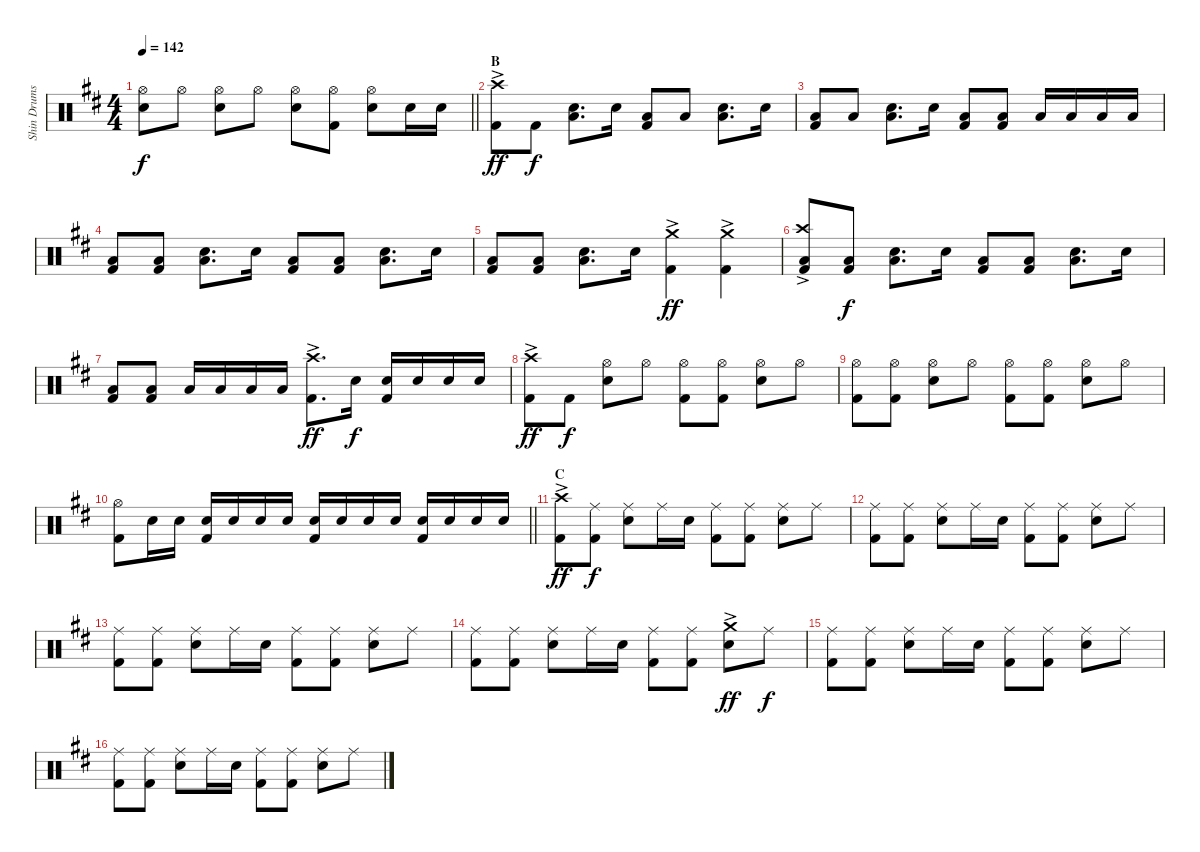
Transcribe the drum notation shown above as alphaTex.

\track ("Shin Drums" "Shin Drums") {instrument percussion}
\staff {score}
\articulation defaults
\ts (4 4)
\tempo 142
\clef neutral
\barLineRight lightlight
\ks d
("Hi-Hat (open)" "Snare (hit) 2").8{dy f} "Hi-Hat (open)".8 ("Hi-Hat (open)" "Snare (hit) 2").8 "Hi-Hat (open)".8 ("Hi-Hat (open)" "Snare (hit) 2").8 ("Hi-Hat (open)" "Kick (hit) 2").8 ("Hi-Hat (open)" "Snare (hit) 2").8 "Snare (hit) 2".16 "Snare (hit) 2".16 |
\section ("" "B")
("Crash high (hit)"{ac} "Kick (hit) 2").8{dy ff} "Kick (hit) 2".8{dy f} ("Snare (hit) 2" "Low Floor Tom (hit)").8{d} "Snare (hit) 2".16 ("Low Floor Tom (hit)" "Kick (hit) 2").8 "Low Floor Tom (hit)".8 ("Snare (hit) 2" "Low Floor Tom (hit)").8{d} "Snare (hit) 2".16 |
("Low Floor Tom (hit)" "Kick (hit) 2").8 "Low Floor Tom (hit)".8 ("Snare (hit) 2" "Low Floor Tom (hit)").8{d} "Snare (hit) 2".16 ("Low Floor Tom (hit)" "Kick (hit) 2").8 ("Low Floor Tom (hit)" "Kick (hit) 2").8 "Low Floor Tom (hit)".16 "Low Tom (hit)".16 "Low Floor Tom (hit)".16 "Low Floor Tom (hit)".16 |
("Low Floor Tom (hit)" "Kick (hit) 2").8 ("Low Floor Tom (hit)" "Kick (hit) 2").8 ("Snare (hit) 2" "Low Floor Tom (hit)").8{d} "Snare (hit) 2".16 ("Low Floor Tom (hit)" "Kick (hit) 2").8 ("Low Floor Tom (hit)" "Kick (hit) 2").8 ("Snare (hit) 2" "Low Floor Tom (hit)").8{d} "Snare (hit) 2".16 |
("Low Floor Tom (hit)" "Kick (hit) 2").8 ("Low Floor Tom (hit)" "Kick (hit) 2").8 ("Snare (hit) 2" "Low Floor Tom (hit)").8{d} "Snare (hit) 2".16 ("Crash medium (hit)"{ac} "Kick (hit) 2").4{dy ff} ("Crash medium (hit)"{ac} "Kick (hit) 2").4 |
("Crash high (hit)"{ac} "Low Floor Tom (hit)" "Kick (hit) 2").8 ("Low Floor Tom (hit)" "Kick (hit) 2").8{dy f} ("Snare (hit) 2" "Low Floor Tom (hit)").8{d} "Snare (hit) 2".16 ("Low Floor Tom (hit)" "Kick (hit) 2").8 ("Low Floor Tom (hit)" "Kick (hit) 2").8 ("Snare (hit) 2" "Low Floor Tom (hit)").8{d} "Snare (hit) 2".16 |
("Low Floor Tom (hit)" "Kick (hit) 2").8 ("Low Floor Tom (hit)" "Kick (hit) 2").8 "Low Floor Tom (hit)".16 "Low Tom (hit)".16 "Low Floor Tom (hit)".16 "Low Floor Tom (hit)".16 ("Crash high (hit)"{ac} "Kick (hit) 2").8{d dy ff} "Snare (hit) 2".16{dy f} ("Snare (hit) 2" "Kick (hit) 2").16 "Snare (hit) 2".16 "Snare (hit) 2".16 "Snare (hit) 2".16 |
("Crash high (hit)"{ac} "Kick (hit) 2").8{dy ff} "Kick (hit) 2".8{dy f} ("Hi-Hat (open)" "Snare (hit) 2").8 "Hi-Hat (open)".8 ("Hi-Hat (open)" "Kick (hit) 2").8 ("Hi-Hat (open)" "Kick (hit) 2").8 ("Hi-Hat (open)" "Snare (hit) 2").8 "Hi-Hat (open)".8 |
("Hi-Hat (open)" "Kick (hit) 2").8 ("Hi-Hat (open)" "Kick (hit) 2").8 ("Hi-Hat (open)" "Snare (hit) 2").8 "Hi-Hat (open)".8 ("Hi-Hat (open)" "Kick (hit) 2").8 ("Hi-Hat (open)" "Kick (hit) 2").8 ("Hi-Hat (open)" "Snare (hit) 2").8 "Hi-Hat (open)".8 |
\barLineRight lightlight
("Hi-Hat (open)" "Kick (hit) 2").8 "Snare (hit) 2".16 "Snare (hit) 2".16 ("Snare (hit) 2" "Kick (hit) 2").16 "Snare (hit) 2".16 "Snare (hit) 2".16 "Snare (hit) 2".16 ("Snare (hit) 2" "Kick (hit) 2").16 "Snare (hit) 2".16 "Snare (hit) 2".16 "Snare (hit) 2".16 ("Snare (hit) 2" "Kick (hit) 2").16 "Snare (hit) 2".16 "Snare (hit) 2".16 "Snare (hit) 2".16 |
\section ("" "C")
("Crash high (hit)"{ac} "Kick (hit) 2").8{dy ff} ("Ride (middle)" "Kick (hit) 2").8{dy f} ("Ride (middle)" "Snare (hit) 2").8 "Ride (middle)".16 "Snare (hit) 2".16 ("Ride (middle)" "Kick (hit) 2").8 ("Ride (middle)" "Kick (hit) 2").8 ("Ride (middle)" "Snare (hit) 2").8 "Ride (middle)".8 |
("Ride (middle)" "Kick (hit) 2").8 ("Ride (middle)" "Kick (hit) 2").8 ("Ride (middle)" "Snare (hit) 2").8 "Ride (middle)".16 "Snare (hit) 2".16 ("Ride (middle)" "Kick (hit) 2").8 ("Ride (middle)" "Kick (hit) 2").8 ("Ride (middle)" "Snare (hit) 2").8 "Ride (middle)".8 |
("Ride (middle)" "Kick (hit) 2").8 ("Ride (middle)" "Kick (hit) 2").8 ("Ride (middle)" "Snare (hit) 2").8 "Ride (middle)".16 "Snare (hit) 2".16 ("Ride (middle)" "Kick (hit) 2").8 ("Ride (middle)" "Kick (hit) 2").8 ("Ride (middle)" "Snare (hit) 2").8 "Ride (middle)".8 |
("Ride (middle)" "Kick (hit) 2").8 ("Ride (middle)" "Kick (hit) 2").8 ("Ride (middle)" "Snare (hit) 2").8 "Ride (middle)".16 "Snare (hit) 2".16 ("Ride (middle)" "Kick (hit) 2").8 ("Ride (middle)" "Kick (hit) 2").8 ("Crash medium (hit)"{ac} "Snare (hit) 2").8{dy ff} "Ride (middle)".8{dy f} |
("Ride (middle)" "Kick (hit) 2").8 ("Ride (middle)" "Kick (hit) 2").8 ("Ride (middle)" "Snare (hit) 2").8 "Ride (middle)".16 "Snare (hit) 2".16 ("Ride (middle)" "Kick (hit) 2").8 ("Ride (middle)" "Kick (hit) 2").8 ("Ride (middle)" "Snare (hit) 2").8 "Ride (middle)".8 |
("Ride (middle)" "Kick (hit) 2").8 ("Ride (middle)" "Kick (hit) 2").8 ("Ride (middle)" "Snare (hit) 2").8 "Ride (middle)".16 "Snare (hit) 2".16 ("Ride (middle)" "Kick (hit) 2").8 ("Ride (middle)" "Kick (hit) 2").8 ("Ride (middle)" "Snare (hit) 2").8 "Ride (middle)".8
